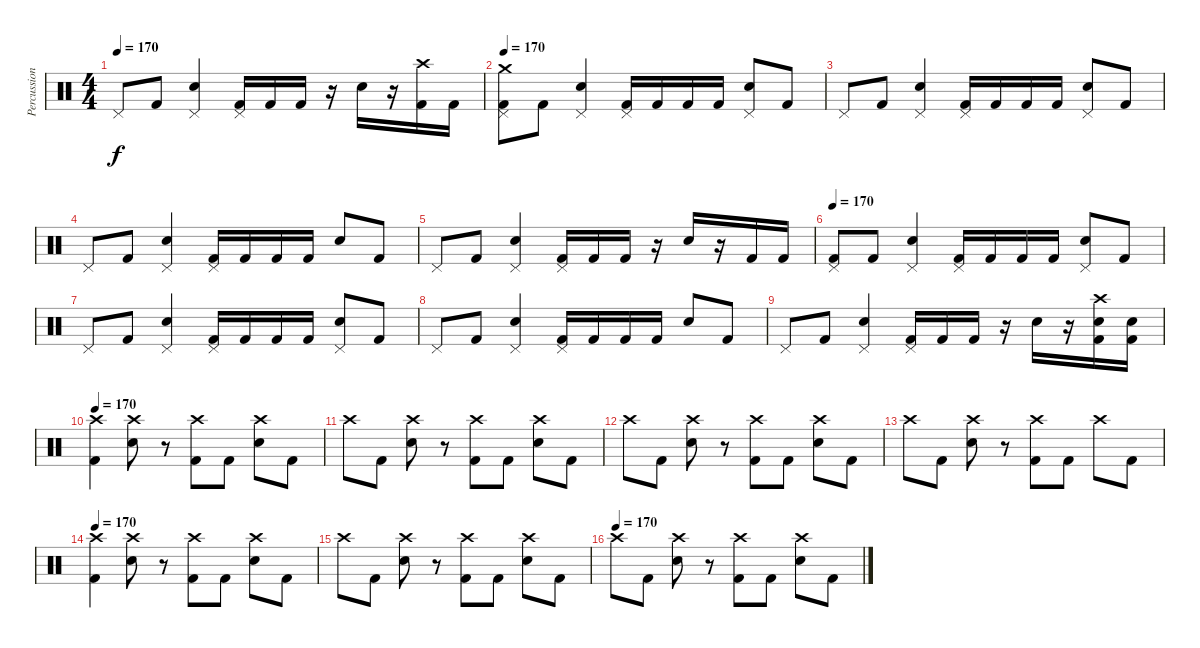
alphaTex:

\track ("Percussion" "Percussion") {instrument percussion}
\staff {score}
\articulation defaults
\ts (4 4)
\tempo 170
\clef neutral
\ks c "Pedal Hi-Hat (hit)".8{dy f} "Kick (hit) 2".8
("Pedal Hi-Hat (hit)" "Electric Snare (hit)").4 ("Pedal Hi-Hat (hit)" "Kick (hit) 2").16 "Kick (hit) 2".16 "Kick (hit) 2".16 r.16 "Electric Snare (hit)".16 r.16 ("Crash high (hit)" "Kick (hit) 2").16 "Kick (hit) 2".16 |
\tempo 170
("Crash medium (hit)" "Pedal Hi-Hat (hit)" "Kick (hit) 2").8 "Kick (hit) 2".8 ("Pedal Hi-Hat (hit)" "Electric Snare (hit)").4 ("Pedal Hi-Hat (hit)" "Kick (hit) 2").16 "Kick (hit) 2".16 "Kick (hit) 2".16 "Kick (hit) 2".16 ("Pedal Hi-Hat (hit)" "Electric Snare (hit)").8 "Kick (hit) 2".8 |
"Pedal Hi-Hat (hit)".8 "Kick (hit) 2".8 ("Pedal Hi-Hat (hit)" "Electric Snare (hit)").4 ("Pedal Hi-Hat (hit)" "Kick (hit) 2").16 "Kick (hit) 2".16 "Kick (hit) 2".16 "Kick (hit) 2".16 ("Pedal Hi-Hat (hit)" "Electric Snare (hit)").8 "Kick (hit) 2".8 |
"Pedal Hi-Hat (hit)".8 "Kick (hit) 2".8 ("Pedal Hi-Hat (hit)" "Electric Snare (hit)").4 ("Pedal Hi-Hat (hit)" "Kick (hit) 2").16 "Kick (hit) 2".16 "Kick (hit) 2".16 "Kick (hit) 2".16 "Electric Snare (hit)".8 "Kick (hit) 2".8 |
"Pedal Hi-Hat (hit)".8 "Kick (hit) 2".8 ("Pedal Hi-Hat (hit)" "Electric Snare (hit)").4 ("Pedal Hi-Hat (hit)" "Kick (hit) 2").16 "Kick (hit) 2".16 "Kick (hit) 2".16 r.16 "Electric Snare (hit)".16 r.16 "Kick (hit) 2".16 "Kick (hit) 2".16 |
\tempo 170
("Pedal Hi-Hat (hit)" "Kick (hit) 2").8 "Kick (hit) 2".8 ("Pedal Hi-Hat (hit)" "Electric Snare (hit)").4 ("Pedal Hi-Hat (hit)" "Kick (hit) 2").16 "Kick (hit) 2".16 "Kick (hit) 2".16 "Kick (hit) 2".16 ("Pedal Hi-Hat (hit)" "Electric Snare (hit)").8 "Kick (hit) 2".8 |
"Pedal Hi-Hat (hit)".8 "Kick (hit) 2".8 ("Pedal Hi-Hat (hit)" "Electric Snare (hit)").4 ("Pedal Hi-Hat (hit)" "Kick (hit) 2").16 "Kick (hit) 2".16 "Kick (hit) 2".16 "Kick (hit) 2".16 ("Pedal Hi-Hat (hit)" "Electric Snare (hit)").8 "Kick (hit) 2".8 |
"Pedal Hi-Hat (hit)".8 "Kick (hit) 2".8 ("Pedal Hi-Hat (hit)" "Electric Snare (hit)").4 ("Pedal Hi-Hat (hit)" "Kick (hit) 2").16 "Kick (hit) 2".16 "Kick (hit) 2".16 "Kick (hit) 2".16 "Electric Snare (hit)".8 "Kick (hit) 2".8 |
"Pedal Hi-Hat (hit)".8 "Kick (hit) 2".8 ("Pedal Hi-Hat (hit)" "Electric Snare (hit)").4 ("Pedal Hi-Hat (hit)" "Kick (hit) 2").16 "Kick (hit) 2".16 "Kick (hit) 2".16 r.16 "Electric Snare (hit)".16 r.16 ("Crash high (hit)" "Electric Snare (hit)" "Kick (hit) 2").16 ("Electric Snare (hit)" "Kick (hit) 2").16 |
\tempo 170
("Crash high (hit)" "Kick (hit) 2").4 ("Crash high (hit)" "Electric Snare (hit)").8 r.8 ("Crash high (hit)" "Kick (hit) 2").8 "Kick (hit) 2".8 ("Crash high (hit)" "Electric Snare (hit)").8 "Kick (hit) 2".8 |
"Crash high (hit)".8 "Kick (hit) 2".8 ("Crash high (hit)" "Electric Snare (hit)").8 r.8 ("Crash high (hit)" "Kick (hit) 2").8 "Kick (hit) 2".8 ("Crash high (hit)" "Electric Snare (hit)").8 "Kick (hit) 2".8 |
"Crash high (hit)".8 "Kick (hit) 2".8 ("Crash high (hit)" "Electric Snare (hit)").8 r.8 ("Crash high (hit)" "Kick (hit) 2").8 "Kick (hit) 2".8 ("Crash high (hit)" "Electric Snare (hit)").8 "Kick (hit) 2".8 |
"Crash high (hit)".8 "Kick (hit) 2".8 ("Crash high (hit)" "Electric Snare (hit)").8 r.8 ("Crash high (hit)" "Kick (hit) 2").8 "Kick (hit) 2".8 "Crash high (hit)".8 "Kick (hit) 2".8 |
\tempo 170
("Crash high (hit)" "Kick (hit) 2").4 ("Crash high (hit)" "Electric Snare (hit)").8 r.8 ("Crash high (hit)" "Kick (hit) 2").8 "Kick (hit) 2".8 ("Crash high (hit)" "Electric Snare (hit)").8 "Kick (hit) 2".8 |
"Crash high (hit)".8 "Kick (hit) 2".8 ("Crash high (hit)" "Electric Snare (hit)").8 r.8 ("Crash high (hit)" "Kick (hit) 2").8 "Kick (hit) 2".8 ("Crash high (hit)" "Electric Snare (hit)").8 "Kick (hit) 2".8 |
\tempo (170)
"Crash high (hit)".8 "Kick (hit) 2".8 ("Crash high (hit)" "Electric Snare (hit)").8 r.8 ("Crash high (hit)" "Kick (hit) 2").8 "Kick (hit) 2".8 ("Crash high (hit)" "Electric Snare (hit)").8 "Kick (hit) 2".8
